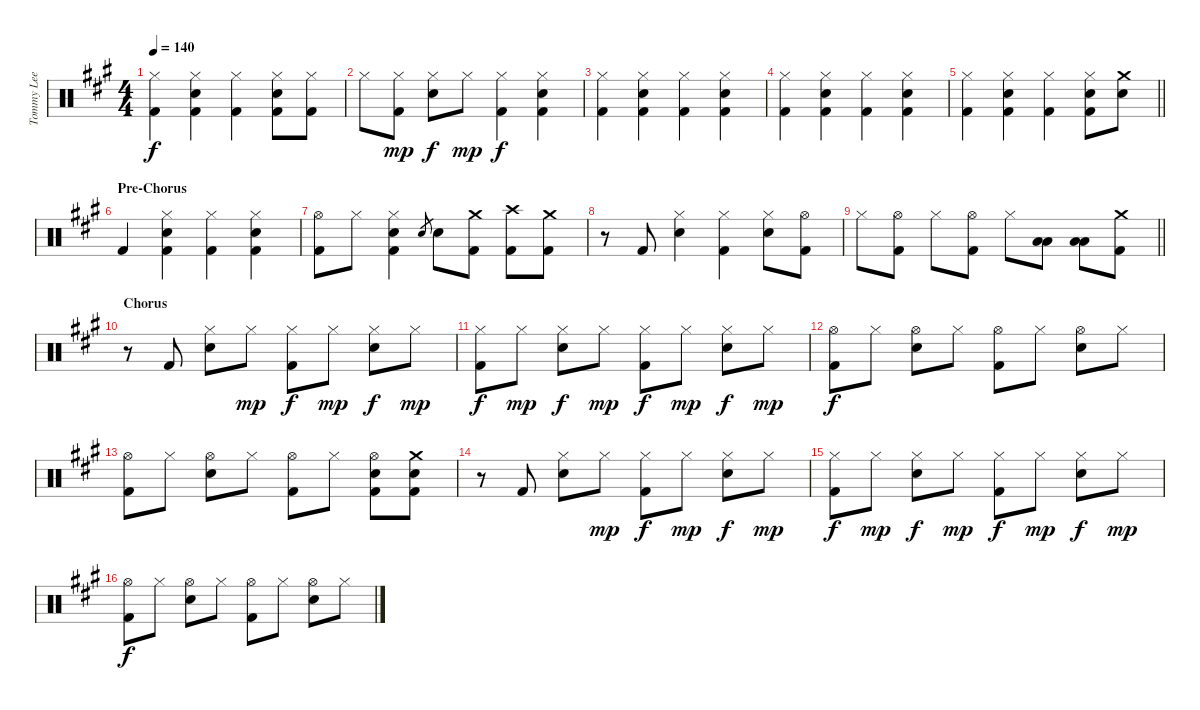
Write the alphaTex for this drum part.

\track ("Tommy Lee - Drums" "Tommy Lee ") {instrument percussion}
\staff {score}
\articulation defaults
\ts (4 4)
\tempo 140
\clef neutral
\ks a
("Hi-Hat (closed)" "Kick (hit) 2").4{dy f} ("Hi-Hat (closed)" "Snare (hit) 2" "Kick (hit) 2").4 ("Hi-Hat (closed)" "Kick (hit) 2").4 ("Hi-Hat (closed)" "Snare (hit) 2" "Kick (hit) 2").8 ("Hi-Hat (closed)" "Kick (hit) 2").8 |
"Hi-Hat (closed)".8 ("Hi-Hat (closed)" "Kick (hit) 2").8{dy mp} ("Hi-Hat (closed)" "Snare (hit) 2").8{dy f} "Hi-Hat (closed)".8{dy mp} ("Hi-Hat (closed)" "Kick (hit) 2").4{dy f} ("Hi-Hat (closed)" "Snare (hit) 2" "Kick (hit) 2").4 |
("Hi-Hat (closed)" "Kick (hit) 2").4 ("Hi-Hat (closed)" "Snare (hit) 2" "Kick (hit) 2").4 ("Hi-Hat (closed)" "Kick (hit) 2").4 ("Hi-Hat (closed)" "Snare (hit) 2" "Kick (hit) 2").4 |
("Hi-Hat (closed)" "Kick (hit) 2").4 ("Hi-Hat (closed)" "Snare (hit) 2" "Kick (hit) 2").4 ("Hi-Hat (closed)" "Kick (hit) 2").4 ("Hi-Hat (closed)" "Snare (hit) 2" "Kick (hit) 2").4 |
\barLineRight lightlight
("Hi-Hat (closed)" "Kick (hit) 2").4 ("Hi-Hat (closed)" "Snare (hit) 2" "Kick (hit) 2").4 ("Hi-Hat (closed)" "Kick (hit) 2").4 ("Hi-Hat (closed)" "Snare (hit) 2" "Kick (hit) 2").8 ("Crash medium (hit)" "Snare (hit) 2").8 |
\section ("" "Pre-Chorus")
"Kick (hit) 2".4 ("Hi-Hat (closed)" "Snare (hit) 2" "Kick (hit) 2").4 ("Hi-Hat (closed)" "Kick (hit) 2").4 ("Hi-Hat (closed)" "Snare (hit) 2" "Kick (hit) 2").4 |
("Hi-Hat (open)" "Kick (hit) 2").8 "Hi-Hat (closed)".8 ("Hi-Hat (closed)" "Snare (hit) 2" "Kick (hit) 2").4 "Snare (hit) 2".8{gr} "Snare (hit) 2".8 ("Crash medium (hit)" "Kick (hit) 2").8 ("Crash high (hit)" "Kick (hit) 2").8 ("Crash medium (hit)" "Kick (hit) 2").8 |
r.8 "Kick (hit) 2".8 ("Hi-Hat (closed)" "Snare (hit) 2").4 ("Hi-Hat (closed)" "Kick (hit) 2").4 ("Hi-Hat (closed)" "Snare (hit) 2").8 ("Hi-Hat (open)" "Kick (hit) 2").8 |
\barLineRight lightlight "Hi-Hat (closed)".8
("Hi-Hat (open)" "Kick (hit) 2").8 "Hi-Hat (closed)".8 ("Hi-Hat (open)" "Kick (hit) 2").8 "Hi-Hat (closed)".8 ("Low Tom (hit)" "Low Tom (hit)").8 ("Low Tom (hit)" "Low Tom (hit)").8 ("Crash medium (hit)" "Kick (hit) 2").8 |
\section ("" "Chorus")
r.8 "Kick (hit) 2".8 ("Hi-Hat (closed)" "Snare (hit) 2").8 "Hi-Hat (closed)".8{dy mp} ("Hi-Hat (closed)" "Kick (hit) 2").8{dy f} "Hi-Hat (closed)".8{dy mp} ("Hi-Hat (closed)" "Snare (hit) 2").8{dy f} "Hi-Hat (closed)".8{dy mp} |
("Hi-Hat (closed)" "Kick (hit) 2").8{dy f} "Hi-Hat (closed)".8{dy mp} ("Hi-Hat (closed)" "Snare (hit) 2").8{dy f} "Hi-Hat (closed)".8{dy mp} ("Hi-Hat (closed)" "Kick (hit) 2").8{dy f} "Hi-Hat (closed)".8{dy mp} ("Hi-Hat (closed)" "Snare (hit) 2").8{dy f} "Hi-Hat (closed)".8{dy mp} |
("Hi-Hat (open)" "Kick (hit) 2").8{dy f} "Hi-Hat (closed)".8 ("Hi-Hat (open)" "Snare (hit) 2").8 "Hi-Hat (closed)".8 ("Hi-Hat (open)" "Kick (hit) 2").8 "Hi-Hat (closed)".8 ("Hi-Hat (open)" "Snare (hit) 2").8 "Hi-Hat (closed)".8 |
("Hi-Hat (open)" "Kick (hit) 2").8 "Hi-Hat (closed)".8 ("Hi-Hat (open)" "Snare (hit) 2").8 "Hi-Hat (closed)".8 ("Hi-Hat (open)" "Kick (hit) 2").8 "Hi-Hat (closed)".8 ("Hi-Hat (open)" "Snare (hit) 2" "Kick (hit) 2").8 ("Crash medium (hit)" "Snare (hit) 2" "Kick (hit) 2").8 |
r.8 "Kick (hit) 2".8 ("Hi-Hat (closed)" "Snare (hit) 2").8 "Hi-Hat (closed)".8{dy mp} ("Hi-Hat (closed)" "Kick (hit) 2").8{dy f} "Hi-Hat (closed)".8{dy mp} ("Hi-Hat (closed)" "Snare (hit) 2").8{dy f} "Hi-Hat (closed)".8{dy mp} |
("Hi-Hat (closed)" "Kick (hit) 2").8{dy f} "Hi-Hat (closed)".8{dy mp} ("Hi-Hat (closed)" "Snare (hit) 2").8{dy f} "Hi-Hat (closed)".8{dy mp} ("Hi-Hat (closed)" "Kick (hit) 2").8{dy f} "Hi-Hat (closed)".8{dy mp} ("Hi-Hat (closed)" "Snare (hit) 2").8{dy f} "Hi-Hat (closed)".8{dy mp} |
("Hi-Hat (open)" "Kick (hit) 2").8{dy f} "Hi-Hat (closed)".8 ("Hi-Hat (open)" "Snare (hit) 2").8 "Hi-Hat (closed)".8 ("Hi-Hat (open)" "Kick (hit) 2").8 "Hi-Hat (closed)".8 ("Hi-Hat (open)" "Snare (hit) 2").8 "Hi-Hat (closed)".8
